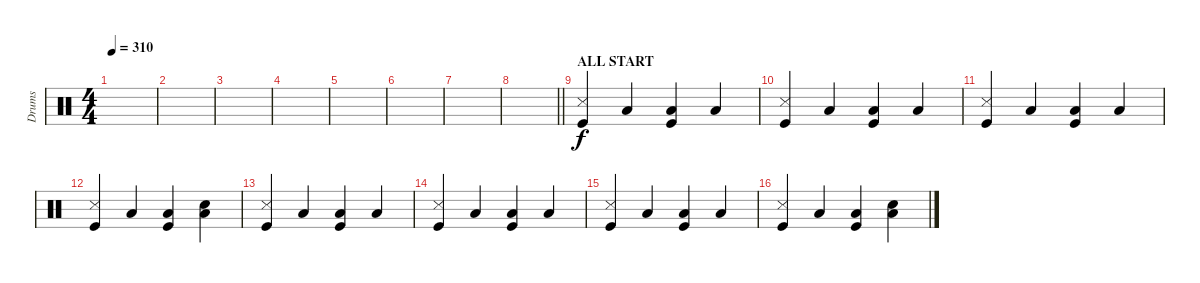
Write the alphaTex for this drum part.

\track ("Drums" "Drums") {instrument percussion}
\staff {score}
\articulation defaults
\ts (4 4)
\tempo 310
\clef neutral
\ks c
|
|
|
|
|
|
|
\barLineRight lightlight
|
\section ("" "ALL START")
("Snare (side stick) 3" "Kick (hit)").4 "Low Floor Tom (hit)".4 ("Low Tom (hit)" "Kick (hit)").4 "Low Floor Tom (hit)".4 |
("Snare (side stick) 3" "Kick (hit)").4 "Low Floor Tom (hit)".4 ("Low Tom (hit)" "Kick (hit)").4 "Low Floor Tom (hit)".4 |
("Snare (side stick) 3" "Kick (hit)").4 "Low Floor Tom (hit)".4 ("Low Tom (hit)" "Kick (hit)").4 "Low Floor Tom (hit)".4 |
("Snare (side stick) 3" "Kick (hit)").4 "Low Floor Tom (hit)".4 ("Low Tom (hit)" "Kick (hit)").4 ("Snare (hit) 2" "Low Floor Tom (hit)").4 |
("Snare (side stick) 3" "Kick (hit)").4 "Low Floor Tom (hit)".4 ("Low Tom (hit)" "Kick (hit)").4 "Low Floor Tom (hit)".4 |
("Snare (side stick) 3" "Kick (hit)").4 "Low Floor Tom (hit)".4 ("Low Tom (hit)" "Kick (hit)").4 "Low Floor Tom (hit)".4 |
("Snare (side stick) 3" "Kick (hit)").4 "Low Floor Tom (hit)".4 ("Low Tom (hit)" "Kick (hit)").4 "Low Floor Tom (hit)".4 |
("Snare (side stick) 3" "Kick (hit)").4 "Low Floor Tom (hit)".4 ("Low Tom (hit)" "Kick (hit)").4 ("Snare (hit) 2" "Low Floor Tom (hit)").4
